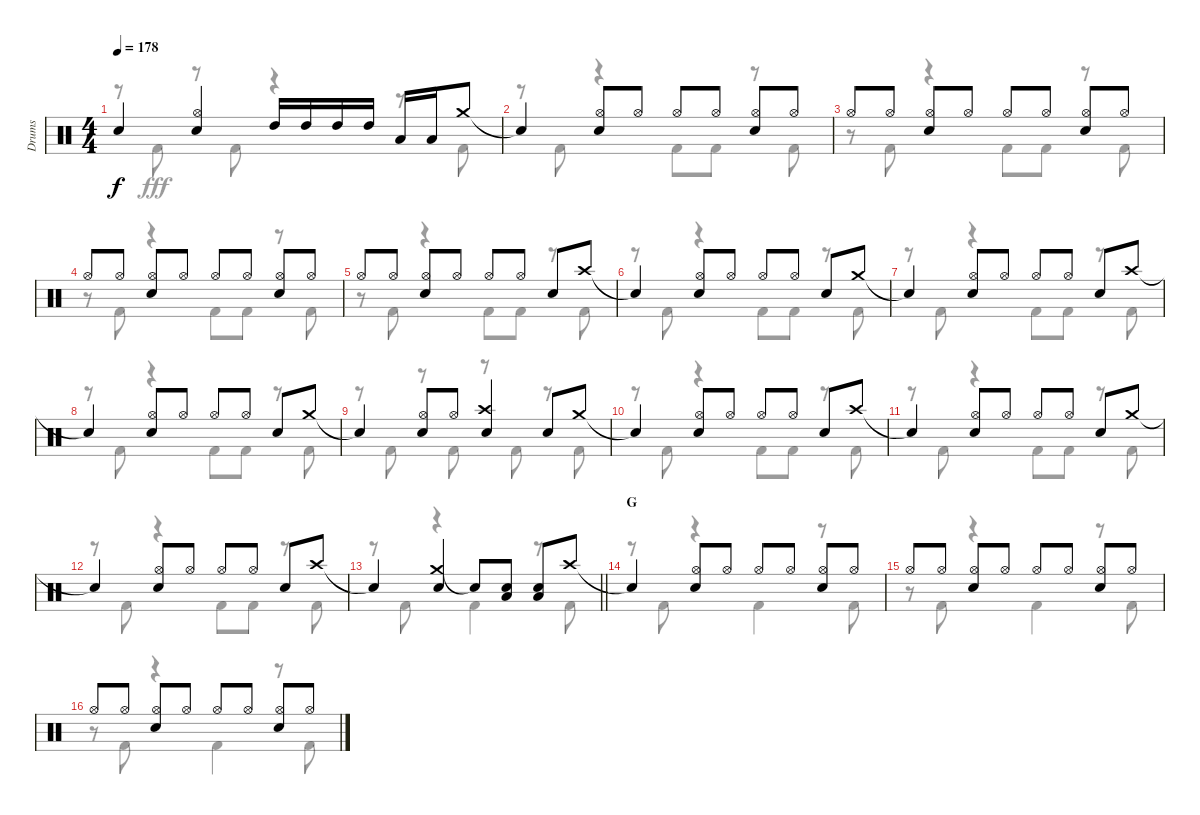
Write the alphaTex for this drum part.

\track ("Drums" "Drums") {instrument percussion}
\staff {score}
\articulation defaults
\voice
\ts (4 4)
\tempo 178
\clef neutral
\ks c "Snare (hit)"{t}.4{dy f}
("Hi-Hat (open)" "Snare (hit) 2").4 "High Tom (hit)".16 "High Tom (hit)".16 "High Tom (hit)".16 "High Tom (hit)".16 "Low Tom (hit)".16 "Low Tom (hit)".16 "Crash medium (hit)".8 |
"Snare (hit)"{t}.4 ("Hi-Hat (open)" "Snare (hit) 2").8 "Hi-Hat (open)".8 "Hi-Hat (open)".8 "Hi-Hat (open)".8 ("Hi-Hat (open)" "Snare (hit) 2").8 "Hi-Hat (open)".8 |
"Hi-Hat (open)".8 "Hi-Hat (open)".8 ("Hi-Hat (open)" "Snare (hit) 2").8 "Hi-Hat (open)".8 "Hi-Hat (open)".8 "Hi-Hat (open)".8 ("Hi-Hat (open)" "Snare (hit) 2").8 "Hi-Hat (open)".8 |
"Hi-Hat (open)".8 "Hi-Hat (open)".8 ("Hi-Hat (open)" "Snare (hit) 2").8 "Hi-Hat (open)".8 "Hi-Hat (open)".8 "Hi-Hat (open)".8 ("Hi-Hat (open)" "Snare (hit) 2").8 "Hi-Hat (open)".8 |
"Hi-Hat (open)".8 "Hi-Hat (open)".8 ("Hi-Hat (open)" "Snare (hit) 2").8 "Hi-Hat (open)".8 "Hi-Hat (open)".8 "Hi-Hat (open)".8 "Snare (hit) 2".8 "Crash high (hit)".8 |
"Snare (hit)"{t}.4 ("Hi-Hat (open)" "Snare (hit) 2").8 "Hi-Hat (open)".8 "Hi-Hat (open)".8 "Hi-Hat (open)".8 "Snare (hit) 2".8 "Crash medium (hit)".8 |
"Snare (hit)"{t}.4 ("Hi-Hat (open)" "Snare (hit) 2").8 "Hi-Hat (open)".8 "Hi-Hat (open)".8 "Hi-Hat (open)".8 "Snare (hit) 2".8 "Crash high (hit)".8 |
"Snare (hit)"{t}.4 ("Hi-Hat (open)" "Snare (hit) 2").8 "Hi-Hat (open)".8 "Hi-Hat (open)".8 "Hi-Hat (open)".8 "Snare (hit) 2".8 "Crash medium (hit)".8 |
"Snare (hit)"{t}.4 ("Hi-Hat (open)" "Snare (hit) 2").8 "Hi-Hat (open)".8 ("Crash high (hit)" "Snare (hit) 2").4 "Snare (hit) 2".8 "Crash medium (hit)".8 |
"Snare (hit)"{t}.4 ("Hi-Hat (open)" "Snare (hit) 2").8 "Hi-Hat (open)".8 "Hi-Hat (open)".8 "Hi-Hat (open)".8 "Snare (hit) 2".8 "Crash high (hit)".8 |
"Snare (hit)"{t}.4 ("Hi-Hat (open)" "Snare (hit) 2").8 "Hi-Hat (open)".8 "Hi-Hat (open)".8 "Hi-Hat (open)".8 "Snare (hit) 2".8 "Crash medium (hit)".8 |
"Snare (hit)"{t}.4 ("Hi-Hat (open)" "Snare (hit) 2").8 "Hi-Hat (open)".8 "Hi-Hat (open)".8 "Hi-Hat (open)".8 "Snare (hit) 2".8 "Crash high (hit)".8 |
\barLineRight lightlight "Snare (hit)"{t}.4
("Crash medium (hit)" "Snare (hit) 2").4 "Snare (hit)"{t}.8 ("Snare (hit) 2" "Low Tom (hit)").8 ("Snare (hit) 2" "Low Tom (hit)").8 "Crash high (hit)".8 |
\section ("" "G")
"Snare (hit)"{t}.4 ("Hi-Hat (open)" "Snare (hit) 2").8 "Hi-Hat (open)".8 "Hi-Hat (open)".8 "Hi-Hat (open)".8 ("Hi-Hat (open)" "Snare (hit) 2").8 "Hi-Hat (open)".8 |
"Hi-Hat (open)".8 "Hi-Hat (open)".8 ("Hi-Hat (open)" "Snare (hit) 2").8 "Hi-Hat (open)".8 "Hi-Hat (open)".8 "Hi-Hat (open)".8 ("Hi-Hat (open)" "Snare (hit) 2").8 "Hi-Hat (open)".8 |
"Hi-Hat (open)".8 "Hi-Hat (open)".8 ("Hi-Hat (open)" "Snare (hit) 2").8 "Hi-Hat (open)".8 "Hi-Hat (open)".8 "Hi-Hat (open)".8 ("Hi-Hat (open)" "Snare (hit) 2").8 "Hi-Hat (open)".8
\voice
\clef neutral
\ottava regular
\simile none
\ks c
r.8{dy fff} "Kick (hit) 2".8 r.8 "Kick (hit) 2".8 r.4 r.8 "Kick (hit) 2".8 |
r.8 "Kick (hit) 2".8 r.4 "Kick (hit) 2".8 "Kick (hit) 2".8 r.8 "Kick (hit) 2".8 |
r.8 "Kick (hit) 2".8 r.4 "Kick (hit) 2".8 "Kick (hit) 2".8 r.8 "Kick (hit) 2".8 |
r.8 "Kick (hit) 2".8 r.4 "Kick (hit) 2".8 "Kick (hit) 2".8 r.8 "Kick (hit) 2".8 |
r.8 "Kick (hit) 2".8 r.4 "Kick (hit) 2".8 "Kick (hit) 2".8 r.8 "Kick (hit) 2".8 |
r.8 "Kick (hit) 2".8 r.4 "Kick (hit) 2".8 "Kick (hit) 2".8 r.8 "Kick (hit) 2".8 |
r.8 "Kick (hit) 2".8 r.4 "Kick (hit) 2".8 "Kick (hit) 2".8 r.8 "Kick (hit) 2".8 |
r.8 "Kick (hit) 2".8 r.4 "Kick (hit) 2".8 "Kick (hit) 2".8 r.8 "Kick (hit) 2".8 |
r.8 "Kick (hit) 2".8 r.8 "Kick (hit) 2".8 r.8 "Kick (hit) 2".8 r.8 "Kick (hit) 2".8 |
r.8 "Kick (hit) 2".8 r.4 "Kick (hit) 2".8 "Kick (hit) 2".8 r.8 "Kick (hit) 2".8 |
r.8 "Kick (hit) 2".8 r.4 "Kick (hit) 2".8 "Kick (hit) 2".8 r.8 "Kick (hit) 2".8 |
r.8 "Kick (hit) 2".8 r.4 "Kick (hit) 2".8 "Kick (hit) 2".8 r.8 "Kick (hit) 2".8 |
\barLineRight lightlight
r.8 "Kick (hit) 2".8 r.4 "Kick (hit) 2".4 r.8 "Kick (hit) 2".8 |
r.8 "Kick (hit) 2".8 r.4 "Kick (hit) 2".4 r.8 "Kick (hit) 2".8 |
r.8 "Kick (hit) 2".8 r.4 "Kick (hit) 2".4 r.8 "Kick (hit) 2".8 |
r.8 "Kick (hit) 2".8 r.4 "Kick (hit) 2".4 r.8 "Kick (hit) 2".8
